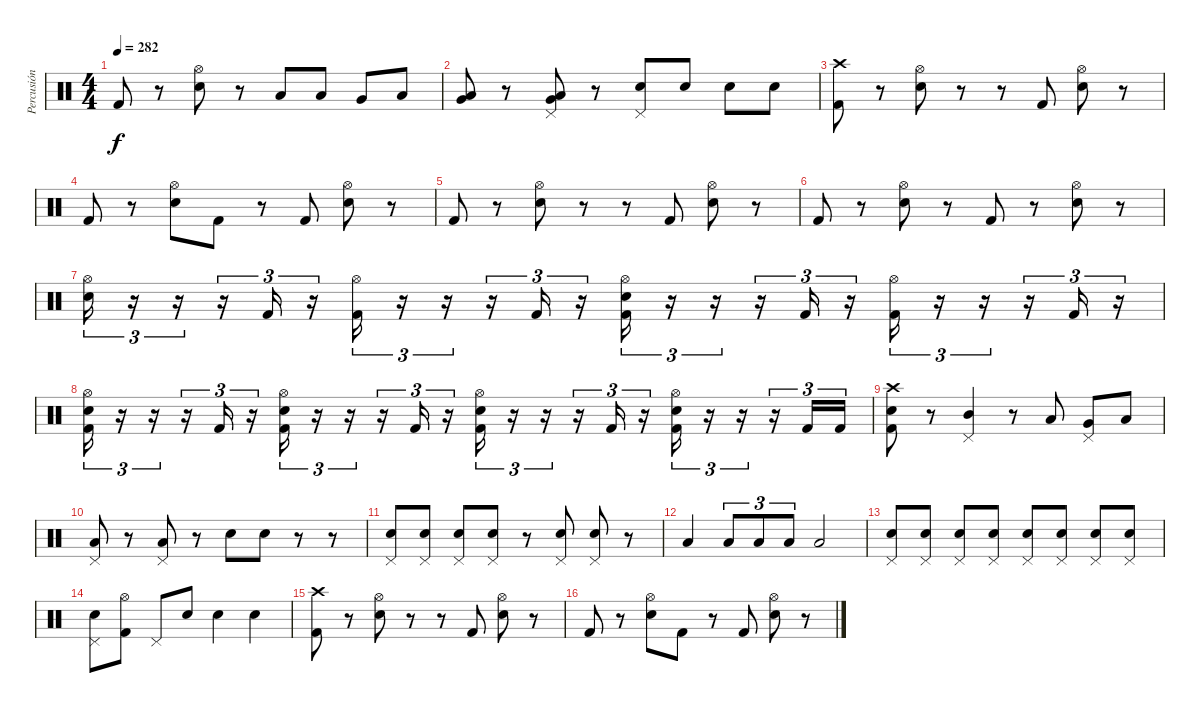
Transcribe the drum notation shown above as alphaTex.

\track ("Percusión" "Percusión") {instrument percussion}
\staff {score}
\articulation defaults
\ts (4 4)
\tempo 282
\clef neutral
\ks c "Kick (hit) 2".8{dy f}
r.8 ("Snare (hit) 2" "Hi-Hat (open)").8 r.8 "Low Tom (hit)".8 "Low Tom (hit)".8 "Very Low Tom (hit)".8 "Low Floor Tom (hit)".8 |
("Low Tom (hit)" "Very Low Tom (hit)").8 r.8 ("Low Floor Tom (hit)" "Very Low Tom (hit)" "Pedal Hi-Hat (hit)").8 r.8 ("Snare (hit) 2" "Pedal Hi-Hat (hit)").8 "Snare (hit) 2".8 "Snare (hit) 2".8 "Snare (hit) 2".8 |
("Kick (hit) 2" "Crash high (hit)").8 r.8 ("Snare (hit) 2" "Hi-Hat (open)").8 r.8 r.8 "Kick (hit) 2".8 ("Snare (hit) 2" "Hi-Hat (open)").8 r.8 |
"Kick (hit) 2".8 r.8 ("Snare (hit) 2" "Hi-Hat (open)").8 "Kick (hit) 2".8 r.8 "Kick (hit) 2".8 ("Snare (hit) 2" "Hi-Hat (open)").8 r.8 |
"Kick (hit) 2".8 r.8 ("Snare (hit) 2" "Hi-Hat (open)").8 r.8 r.8 "Kick (hit) 2".8 ("Snare (hit) 2" "Hi-Hat (open)").8 r.8 |
"Kick (hit) 2".8 r.8 ("Snare (hit) 2" "Hi-Hat (open)").8 r.8 "Kick (hit) 2".8 r.8 ("Snare (hit) 2" "Hi-Hat (open)").8 r.8 |
("Snare (hit) 2" "Hi-Hat (open)").16{tu (3 2)} r.16{tu (3 2)} r.16{tu (3 2)} r.16{tu (3 2)} "Kick (hit) 2".16{tu (3 2)} r.16{tu (3 2)} ("Kick (hit) 2" "Hi-Hat (open)").16{tu (3 2)} r.16{tu (3 2)} r.16{tu (3 2)} r.16{tu (3 2)} "Kick (hit) 2".16{tu (3 2)} r.16{tu (3 2)} ("Kick (hit) 2" "Snare (hit) 2" "Hi-Hat (open)").16{tu (3 2)} r.16{tu (3 2)} r.16{tu (3 2)} r.16{tu (3 2)} "Kick (hit) 2".16{tu (3 2)} r.16{tu (3 2)} ("Kick (hit) 2" "Hi-Hat (open)").16{tu (3 2)} r.16{tu (3 2)} r.16{tu (3 2)} r.16{tu (3 2)} "Kick (hit) 2".16{tu (3 2)} r.16{tu (3 2)} |
("Kick (hit) 2" "Snare (hit) 2" "Hi-Hat (open)").16{tu (3 2)} r.16{tu (3 2)} r.16{tu (3 2)} r.16{tu (3 2)} "Kick (hit) 2".16{tu (3 2)} r.16{tu (3 2)} ("Kick (hit) 2" "Snare (hit) 2" "Hi-Hat (open)").16{tu (3 2)} r.16{tu (3 2)} r.16{tu (3 2)} r.16{tu (3 2)} "Kick (hit) 2".16{tu (3 2)} r.16{tu (3 2)} ("Kick (hit) 2" "Snare (hit) 2" "Hi-Hat (open)").16{tu (3 2)} r.16{tu (3 2)} r.16{tu (3 2)} r.16{tu (3 2)} "Kick (hit) 2".16{tu (3 2)} r.16{tu (3 2)} ("Kick (hit) 2" "Snare (hit) 2" "Hi-Hat (open)").16{tu (3 2)} r.16{tu (3 2)} r.16{tu (3 2)} r.16{tu (3 2)} "Kick (hit) 2".16{tu (3 2)} "Kick (hit) 2".16{tu (3 2)} |
("Kick (hit) 2" "Snare (hit) 2" "Crash high (hit)").8 r.8 ("Mid Tom (hit)" "Pedal Hi-Hat (hit)").4 r.8 "Low Tom (hit)".8 ("Very Low Tom (hit)" "Pedal Hi-Hat (hit)").8 "Low Floor Tom (hit)".8 |
("Low Tom (hit)" "Pedal Hi-Hat (hit)").8 r.8 ("Low Tom (hit)" "Pedal Hi-Hat (hit)").8 r.8 "Snare (hit) 2".8 "Snare (hit) 2".8 r.8 r.8 |
("Snare (hit) 2" "Pedal Hi-Hat (hit)").8 ("Snare (hit) 2" "Pedal Hi-Hat (hit)").8 ("Snare (hit) 2" "Pedal Hi-Hat (hit)").8 ("Snare (hit) 2" "Pedal Hi-Hat (hit)").8 r.8 ("Snare (hit) 2" "Pedal Hi-Hat (hit)").8 ("Snare (hit) 2" "Pedal Hi-Hat (hit)").8 r.8 |
"Low Tom (hit)".4 "Low Floor Tom (hit)".8{tu (3 2)} "Low Floor Tom (hit)".8{tu (3 2)} "Low Floor Tom (hit)".8{tu (3 2)} "Low Floor Tom (hit)".2 |
("Snare (hit) 2" "Pedal Hi-Hat (hit)").8 ("Snare (hit) 2" "Pedal Hi-Hat (hit)").8 ("Snare (hit) 2" "Pedal Hi-Hat (hit)").8 ("Snare (hit) 2" "Pedal Hi-Hat (hit)").8 ("Snare (hit) 2" "Pedal Hi-Hat (hit)").8 ("Snare (hit) 2" "Pedal Hi-Hat (hit)").8 ("Snare (hit) 2" "Pedal Hi-Hat (hit)").8 ("Snare (hit) 2" "Pedal Hi-Hat (hit)").8 |
("Snare (hit) 2" "Pedal Hi-Hat (hit)").8 ("Kick (hit) 2" "Hi-Hat (open)").8 "Pedal Hi-Hat (hit)".8 "Snare (hit) 2".8 "Snare (hit) 2".4 "Snare (hit) 2".4 |
("Kick (hit) 2" "Crash high (hit)").8 r.8 ("Snare (hit) 2" "Hi-Hat (open)").8 r.8 r.8 "Kick (hit) 2".8 ("Snare (hit) 2" "Hi-Hat (open)").8 r.8 |
"Kick (hit) 2".8 r.8 ("Snare (hit) 2" "Hi-Hat (open)").8 "Kick (hit) 2".8 r.8 "Kick (hit) 2".8 ("Snare (hit) 2" "Hi-Hat (open)").8 r.8
